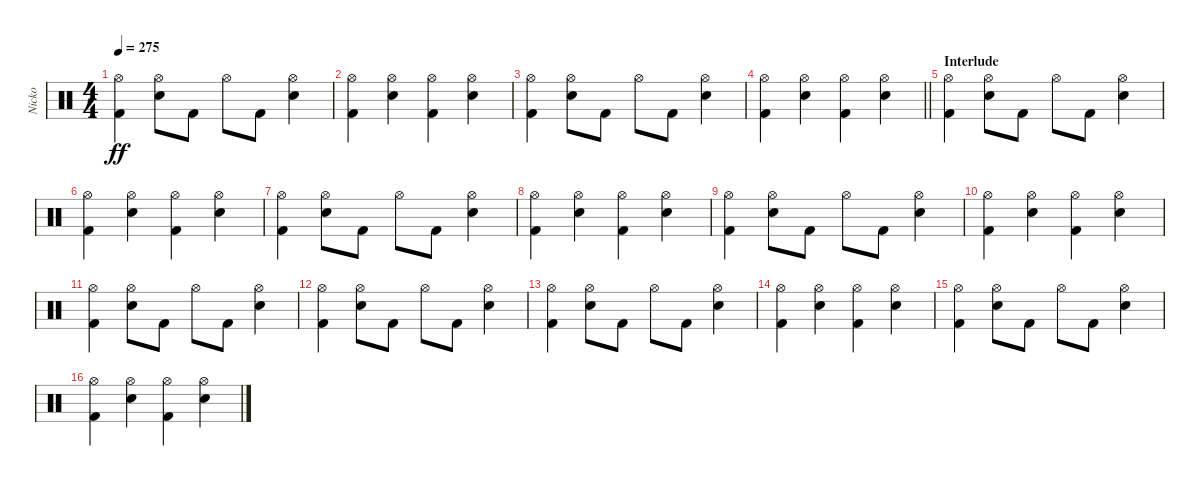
\track ("Nicko" "Nicko") {instrument percussion}
\staff {score}
\articulation defaults
\ts (4 4)
\tempo 275
\clef neutral
\ks c
("Kick (hit) 2" "Hi-Hat (open)").4{dy ff} ("Snare (hit) 2" "Hi-Hat (open)").8 "Kick (hit) 2".8 "Hi-Hat (open)".8 "Kick (hit) 2".8 ("Snare (hit) 2" "Hi-Hat (open)").4 |
("Kick (hit) 2" "Hi-Hat (open)").4 ("Snare (hit) 2" "Hi-Hat (open)").4 ("Kick (hit) 2" "Hi-Hat (open)").4 ("Snare (hit) 2" "Hi-Hat (open)").4 |
("Kick (hit) 2" "Hi-Hat (open)").4 ("Snare (hit) 2" "Hi-Hat (open)").8 "Kick (hit) 2".8 "Hi-Hat (open)".8 "Kick (hit) 2".8 ("Snare (hit) 2" "Hi-Hat (open)").4 |
\barLineRight lightlight
("Kick (hit) 2" "Hi-Hat (open)").4 ("Snare (hit) 2" "Hi-Hat (open)").4 ("Kick (hit) 2" "Hi-Hat (open)").4 ("Snare (hit) 2" "Hi-Hat (open)").4 |
\section ("" "Interlude")
("Kick (hit) 2" "Hi-Hat (open)").4 ("Snare (hit) 2" "Hi-Hat (open)").8 "Kick (hit) 2".8 "Hi-Hat (open)".8 "Kick (hit) 2".8 ("Snare (hit) 2" "Hi-Hat (open)").4 |
("Kick (hit) 2" "Hi-Hat (open)").4 ("Snare (hit) 2" "Hi-Hat (open)").4 ("Kick (hit) 2" "Hi-Hat (open)").4 ("Snare (hit) 2" "Hi-Hat (open)").4 |
("Kick (hit) 2" "Hi-Hat (open)").4 ("Snare (hit) 2" "Hi-Hat (open)").8 "Kick (hit) 2".8 "Hi-Hat (open)".8 "Kick (hit) 2".8 ("Snare (hit) 2" "Hi-Hat (open)").4 |
("Kick (hit) 2" "Hi-Hat (open)").4 ("Snare (hit) 2" "Hi-Hat (open)").4 ("Kick (hit) 2" "Hi-Hat (open)").4 ("Snare (hit) 2" "Hi-Hat (open)").4 |
("Kick (hit) 2" "Hi-Hat (open)").4 ("Snare (hit) 2" "Hi-Hat (open)").8 "Kick (hit) 2".8 "Hi-Hat (open)".8 "Kick (hit) 2".8 ("Snare (hit) 2" "Hi-Hat (open)").4 |
("Kick (hit) 2" "Hi-Hat (open)").4 ("Snare (hit) 2" "Hi-Hat (open)").4 ("Kick (hit) 2" "Hi-Hat (open)").4 ("Snare (hit) 2" "Hi-Hat (open)").4 |
("Kick (hit) 2" "Hi-Hat (open)").4 ("Snare (hit) 2" "Hi-Hat (open)").8 "Kick (hit) 2".8 "Hi-Hat (open)".8 "Kick (hit) 2".8 ("Snare (hit) 2" "Hi-Hat (open)").4 |
("Kick (hit) 2" "Hi-Hat (open)").4 ("Snare (hit) 2" "Hi-Hat (open)").8 "Kick (hit) 2".8 "Hi-Hat (open)".8 "Kick (hit) 2".8 ("Snare (hit) 2" "Hi-Hat (open)").4 |
("Kick (hit) 2" "Hi-Hat (open)").4 ("Snare (hit) 2" "Hi-Hat (open)").8 "Kick (hit) 2".8 "Hi-Hat (open)".8 "Kick (hit) 2".8 ("Snare (hit) 2" "Hi-Hat (open)").4 |
("Kick (hit) 2" "Hi-Hat (open)").4 ("Snare (hit) 2" "Hi-Hat (open)").4 ("Kick (hit) 2" "Hi-Hat (open)").4 ("Snare (hit) 2" "Hi-Hat (open)").4 |
("Kick (hit) 2" "Hi-Hat (open)").4 ("Snare (hit) 2" "Hi-Hat (open)").8 "Kick (hit) 2".8 "Hi-Hat (open)".8 "Kick (hit) 2".8 ("Snare (hit) 2" "Hi-Hat (open)").4 |
("Kick (hit) 2" "Hi-Hat (open)").4 ("Snare (hit) 2" "Hi-Hat (open)").4 ("Kick (hit) 2" "Hi-Hat (open)").4 ("Snare (hit) 2" "Hi-Hat (open)").4
